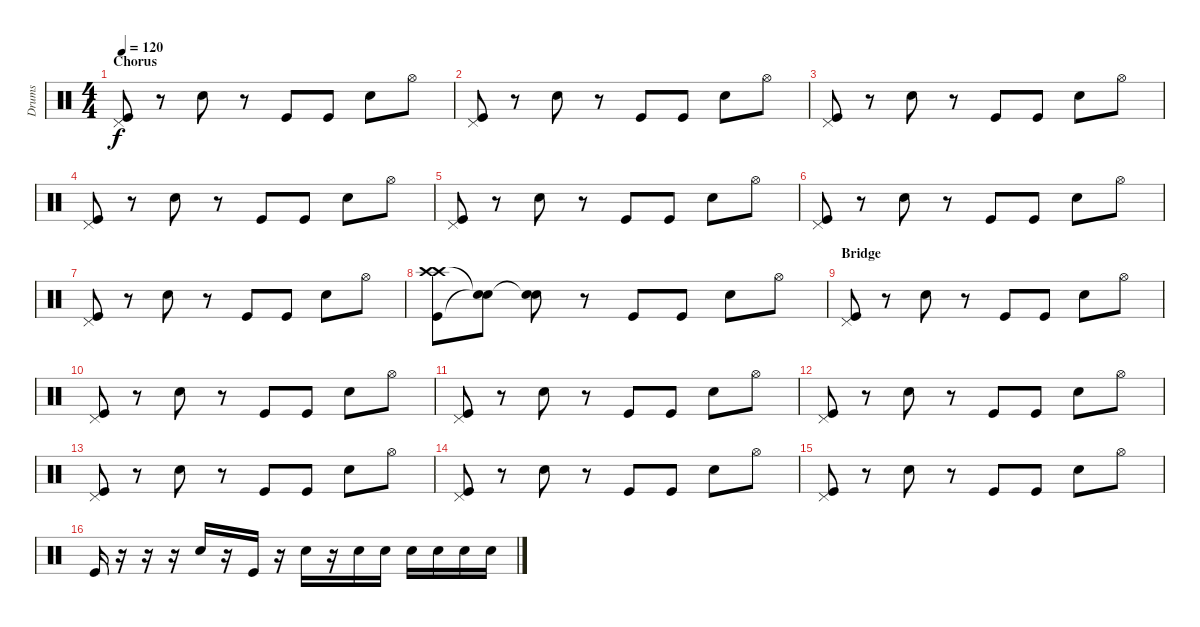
\track ("Drums" "Drums") {instrument percussion}
\staff {score}
\articulation defaults
\ts (4 4)
\section ("" "Chorus")
\tempo 120
\clef neutral
\ks c
("Kick (hit)" "Pedal Hi-Hat (hit)").8{dy f} r.8 "Snare (hit) 2".8 r.8 "Kick (hit)".8 "Kick (hit)".8 "Snare (hit) 2".8 "Hi-Hat (open)".8 |
("Kick (hit)" "Pedal Hi-Hat (hit)").8 r.8 "Snare (hit) 2".8 r.8 "Kick (hit)".8 "Kick (hit)".8 "Snare (hit) 2".8 "Hi-Hat (open)".8 |
("Kick (hit)" "Pedal Hi-Hat (hit)").8 r.8 "Snare (hit) 2".8 r.8 "Kick (hit)".8 "Kick (hit)".8 "Snare (hit) 2".8 "Hi-Hat (open)".8 |
("Kick (hit)" "Pedal Hi-Hat (hit)").8 r.8 "Snare (hit) 2".8 r.8 "Kick (hit)".8 "Kick (hit)".8 "Snare (hit) 2".8 "Hi-Hat (open)".8 |
("Kick (hit)" "Pedal Hi-Hat (hit)").8 r.8 "Snare (hit) 2".8 r.8 "Kick (hit)".8 "Kick (hit)".8 "Snare (hit) 2".8 "Hi-Hat (open)".8 |
("Kick (hit)" "Pedal Hi-Hat (hit)").8 r.8 "Snare (hit) 2".8 r.8 "Kick (hit)".8 "Kick (hit)".8 "Snare (hit) 2".8 "Hi-Hat (open)".8 |
("Kick (hit)" "Pedal Hi-Hat (hit)").8 r.8 "Snare (hit) 2".8 r.8 "Kick (hit)".8 "Kick (hit)".8 "Snare (hit) 2".8 "Hi-Hat (open)".8 |
("Kick (hit)" "Crash high (hit)" "Crash high (hit)").8 ("Snare (hit)"{t} "Snare (hit)"{t}).8 ("Snare (hit) 2" "Snare (hit)"{t}).8 r.8 "Kick (hit)".8 "Kick (hit)".8 "Snare (hit) 2".8 "Hi-Hat (open)".8 |
\section ("" "Bridge")
("Kick (hit)" "Pedal Hi-Hat (hit)").8 r.8 "Snare (hit) 2".8 r.8 "Kick (hit)".8 "Kick (hit)".8 "Snare (hit) 2".8 "Hi-Hat (open)".8 |
("Kick (hit)" "Pedal Hi-Hat (hit)").8 r.8 "Snare (hit) 2".8 r.8 "Kick (hit)".8 "Kick (hit)".8 "Snare (hit) 2".8 "Hi-Hat (open)".8 |
("Kick (hit)" "Pedal Hi-Hat (hit)").8 r.8 "Snare (hit) 2".8 r.8 "Kick (hit)".8 "Kick (hit)".8 "Snare (hit) 2".8 "Hi-Hat (open)".8 |
("Kick (hit)" "Pedal Hi-Hat (hit)").8 r.8 "Snare (hit) 2".8 r.8 "Kick (hit)".8 "Kick (hit)".8 "Snare (hit) 2".8 "Hi-Hat (open)".8 |
("Kick (hit)" "Pedal Hi-Hat (hit)").8 r.8 "Snare (hit) 2".8 r.8 "Kick (hit)".8 "Kick (hit)".8 "Snare (hit) 2".8 "Hi-Hat (open)".8 |
("Kick (hit)" "Pedal Hi-Hat (hit)").8 r.8 "Snare (hit) 2".8 r.8 "Kick (hit)".8 "Kick (hit)".8 "Snare (hit) 2".8 "Hi-Hat (open)".8 |
("Kick (hit)" "Pedal Hi-Hat (hit)").8 r.8 "Snare (hit) 2".8 r.8 "Kick (hit)".8 "Kick (hit)".8 "Snare (hit) 2".8 "Hi-Hat (open)".8 |
"Kick (hit)".16 r.16 r.16 r.16 "Snare (hit) 2".16 r.16 "Kick (hit)".16 r.16 "Snare (hit) 2".16 r.16 "Snare (hit) 2".16 "Snare (hit) 2".16 "Snare (hit) 2".16 "Snare (hit) 2".16 "Snare (hit) 2".16 "Snare (hit) 2".16
